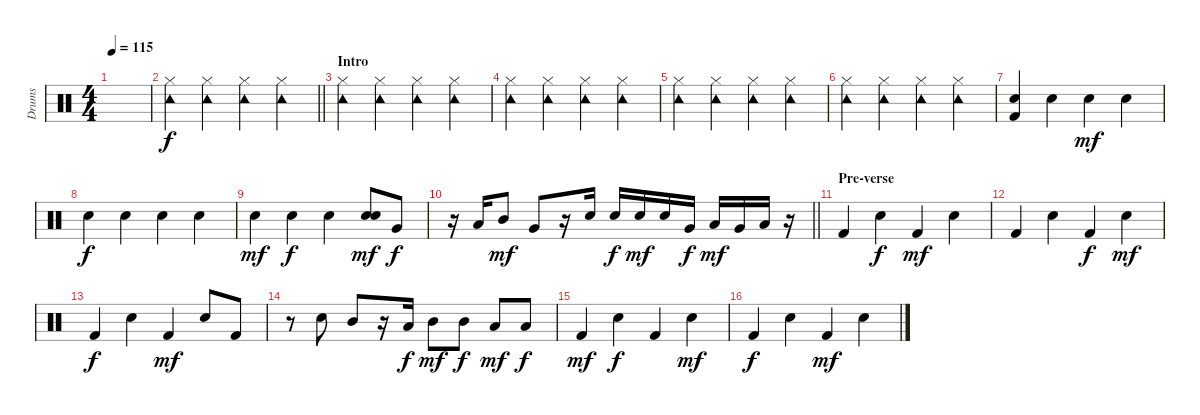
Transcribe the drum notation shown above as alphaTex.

\track ("Drums" "Drums") {instrument percussion}
\staff {score}
\articulation defaults
\ts (4 4)
\tempo 115
\clef neutral
\ks c
|
\barLineRight lightlight
("Tambourine (hit)" "Hi-Hat (closed)").4 ("Tambourine (hit)" "Hi-Hat (closed)").4 ("Tambourine (hit)" "Hi-Hat (closed)").4 ("Tambourine (hit)" "Hi-Hat (closed)").4 |
\section ("" "Intro")
("Tambourine (hit)" "Hi-Hat (closed)").4 ("Tambourine (hit)" "Hi-Hat (closed)").4 ("Tambourine (hit)" "Hi-Hat (closed)").4 ("Tambourine (hit)" "Hi-Hat (closed)").4 |
("Tambourine (hit)" "Hi-Hat (closed)").4 ("Tambourine (hit)" "Hi-Hat (closed)").4 ("Tambourine (hit)" "Hi-Hat (closed)").4 ("Tambourine (hit)" "Hi-Hat (closed)").4 |
("Tambourine (hit)" "Hi-Hat (closed)").4 ("Tambourine (hit)" "Hi-Hat (closed)").4 ("Tambourine (hit)" "Hi-Hat (closed)").4 ("Tambourine (hit)" "Hi-Hat (closed)").4 |
("Tambourine (hit)" "Hi-Hat (closed)").4 ("Tambourine (hit)" "Hi-Hat (closed)").4 ("Tambourine (hit)" "Hi-Hat (closed)").4 ("Tambourine (hit)" "Hi-Hat (closed)").4 |
("Kick (hit) 2" "Electric Snare (hit)").4 "Electric Snare (hit)".4 "Electric Snare (hit)".4{dy mf} "Electric Snare (hit)".4 |
"Electric Snare (hit)".4{dy f} "Electric Snare (hit)".4 "Electric Snare (hit)".4 "Electric Snare (hit)".4 |
"Electric Snare (hit)".4{dy mf} "Electric Snare (hit)".4{dy f} "Electric Snare (hit)".4 ("Electric Snare (hit)" "Electric Snare (hit)").8{dy mf} "Very Low Tom (hit)".8{dy f} |
\barLineRight lightlight
r.16 "Low Tom (hit)".16 "Mid Tom (hit)".8{dy mf} "Very Low Tom (hit)".8 r.16 "Electric Snare (hit)".16 "Electric Snare (hit)".16{dy f} "Electric Snare (hit)".16{dy mf} "Electric Snare (hit)".16 "Very Low Tom (hit)".16{dy f} "Low Tom (hit)".16{dy mf} "Very Low Tom (hit)".16 "Low Tom (hit)".16 r.16 |
\section ("" "Pre-verse")
"Kick (hit) 2".4 "Electric Snare (hit)".4{dy f} "Kick (hit) 2".4{dy mf} "Electric Snare (hit)".4 |
"Kick (hit) 2".4 "Electric Snare (hit)".4 "Kick (hit) 2".4{dy f} "Electric Snare (hit)".4{dy mf} |
"Kick (hit) 2".4{dy f} "Electric Snare (hit)".4 "Kick (hit) 2".4{dy mf} "Electric Snare (hit)".8 "Kick (hit) 2".8 |
r.8 "Electric Snare (hit)".8 "Mid Tom (hit)".8 r.16 "Low Tom (hit)".16{dy f} "Mid Tom (hit)".8{dy mf} "Mid Tom (hit)".8{dy f} "Low Tom (hit)".8{dy mf} "Low Tom (hit)".8{dy f} |
"Kick (hit) 2".4{dy mf} "Electric Snare (hit)".4{dy f} "Kick (hit) 2".4 "Electric Snare (hit)".4{dy mf} |
"Kick (hit) 2".4{dy f} "Electric Snare (hit)".4 "Kick (hit) 2".4{dy mf} "Electric Snare (hit)".4
